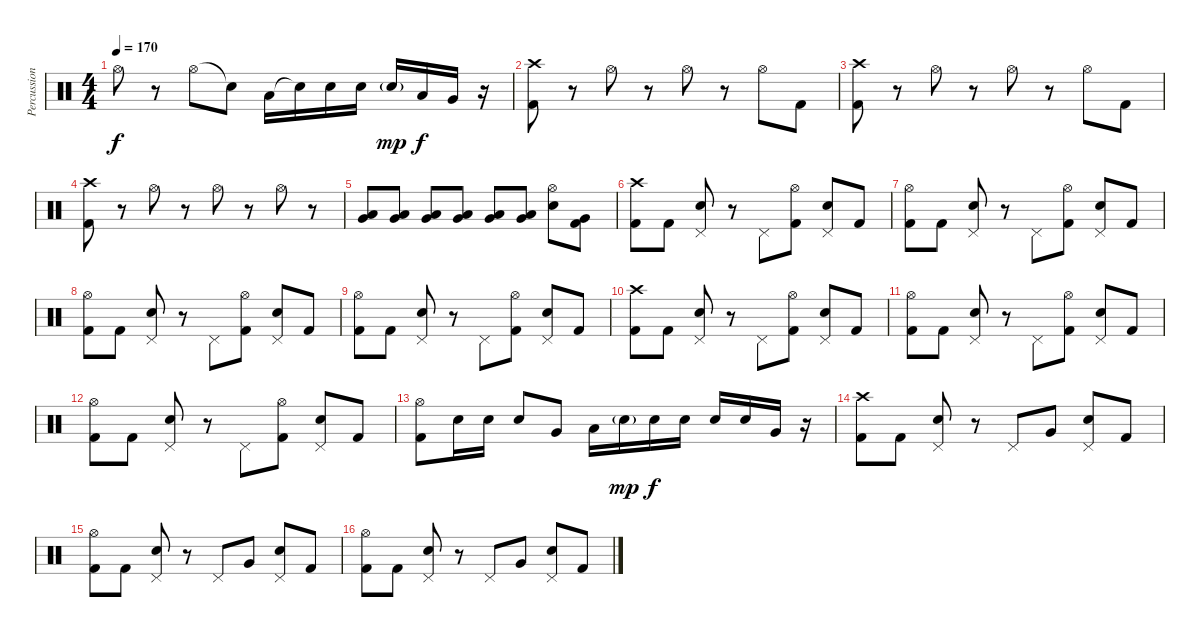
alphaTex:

\track ("Percussion" "Percussion") {instrument percussion}
\staff {score}
\articulation defaults
\ts (4 4)
\tempo 170
\clef neutral
\ks c "Hi-Hat (open)".8{dy f}
r.8 "Hi-Hat (open)".8 "Snare (hit)"{t}.8 "Low Tom (hit)".16 "Snare (hit)"{t}.16 "Electric Snare (hit)".16 "Electric Snare (hit)".16 "Electric Snare (hit)"{g}.16{dy mp} "Low Tom (hit)".16{dy f} "Very Low Tom (hit)".16 r.16 |
("Crash high (hit)" "Kick (hit) 2").8 r.8 "Hi-Hat (open)".8 r.8 "Hi-Hat (open)".8 r.8 "Hi-Hat (open)".8 "Kick (hit) 2".8 |
("Crash high (hit)" "Kick (hit) 2").8 r.8 "Hi-Hat (open)".8 r.8 "Hi-Hat (open)".8 r.8 "Hi-Hat (open)".8 "Kick (hit) 2".8 |
("Crash high (hit)" "Kick (hit) 2").8 r.8 "Hi-Hat (open)".8 r.8 "Hi-Hat (open)".8 r.8 "Hi-Hat (open)".8 r.8 |
("Low Floor Tom (hit)" "Very Low Tom (hit)").8 ("Low Floor Tom (hit)" "Very Low Tom (hit)").8 ("Low Floor Tom (hit)" "Very Low Tom (hit)").8 ("Low Floor Tom (hit)" "Very Low Tom (hit)").8 ("Low Floor Tom (hit)" "Very Low Tom (hit)").8 ("Low Floor Tom (hit)" "Very Low Tom (hit)").8 ("Electric Snare (hit)" "Hi-Hat (open)").8 ("Very Low Tom (hit)" "Kick (hit) 2").8 |
("Crash high (hit)" "Kick (hit) 2").8 "Kick (hit) 2".8 ("Pedal Hi-Hat (hit)" "Electric Snare (hit)").8 r.8 "Pedal Hi-Hat (hit)".8 ("Hi-Hat (open)" "Kick (hit) 2").8 ("Pedal Hi-Hat (hit)" "Electric Snare (hit)").8 "Kick (hit) 2".8 |
("Hi-Hat (open)" "Kick (hit) 2").8 "Kick (hit) 2".8 ("Pedal Hi-Hat (hit)" "Electric Snare (hit)").8 r.8 "Pedal Hi-Hat (hit)".8 ("Hi-Hat (open)" "Kick (hit) 2").8 ("Pedal Hi-Hat (hit)" "Electric Snare (hit)").8 "Kick (hit) 2".8 |
("Hi-Hat (open)" "Kick (hit) 2").8 "Kick (hit) 2".8 ("Pedal Hi-Hat (hit)" "Electric Snare (hit)").8 r.8 "Pedal Hi-Hat (hit)".8 ("Hi-Hat (open)" "Kick (hit) 2").8 ("Pedal Hi-Hat (hit)" "Electric Snare (hit)").8 "Kick (hit) 2".8 |
("Hi-Hat (open)" "Kick (hit) 2").8 "Kick (hit) 2".8 ("Pedal Hi-Hat (hit)" "Electric Snare (hit)").8 r.8 "Pedal Hi-Hat (hit)".8 ("Hi-Hat (open)" "Kick (hit) 2").8 ("Pedal Hi-Hat (hit)" "Electric Snare (hit)").8 "Kick (hit) 2".8 |
("Crash high (hit)" "Kick (hit) 2").8 "Kick (hit) 2".8 ("Pedal Hi-Hat (hit)" "Electric Snare (hit)").8 r.8 "Pedal Hi-Hat (hit)".8 ("Hi-Hat (open)" "Kick (hit) 2").8 ("Pedal Hi-Hat (hit)" "Electric Snare (hit)").8 "Kick (hit) 2".8 |
("Hi-Hat (open)" "Kick (hit) 2").8 "Kick (hit) 2".8 ("Pedal Hi-Hat (hit)" "Electric Snare (hit)").8 r.8 "Pedal Hi-Hat (hit)".8 ("Hi-Hat (open)" "Kick (hit) 2").8 ("Pedal Hi-Hat (hit)" "Electric Snare (hit)").8 "Kick (hit) 2".8 |
("Hi-Hat (open)" "Kick (hit) 2").8 "Kick (hit) 2".8 ("Pedal Hi-Hat (hit)" "Electric Snare (hit)").8 r.8 "Pedal Hi-Hat (hit)".8 ("Hi-Hat (open)" "Kick (hit) 2").8 ("Pedal Hi-Hat (hit)" "Electric Snare (hit)").8 "Kick (hit) 2".8 |
("Hi-Hat (open)" "Kick (hit) 2").8 "Electric Snare (hit)".16 "Electric Snare (hit)".16 "Electric Snare (hit)".8 "Very Low Tom (hit)".8 "Low Tom (hit)".16 "Electric Snare (hit)"{g}.16{dy mp} "Electric Snare (hit)".16{dy f} "Electric Snare (hit)".16 "Electric Snare (hit)".16 "Electric Snare (hit)".16 "Very Low Tom (hit)".16 r.16 |
("Crash high (hit)" "Kick (hit) 2").8 "Kick (hit) 2".8 ("Pedal Hi-Hat (hit)" "Electric Snare (hit)").8 r.8 "Pedal Hi-Hat (hit)".8 "Very Low Tom (hit)".8 ("Pedal Hi-Hat (hit)" "Electric Snare (hit)").8 "Kick (hit) 2".8 |
("Hi-Hat (open)" "Kick (hit) 2").8 "Kick (hit) 2".8 ("Pedal Hi-Hat (hit)" "Electric Snare (hit)").8 r.8 "Pedal Hi-Hat (hit)".8 "Very Low Tom (hit)".8 ("Pedal Hi-Hat (hit)" "Electric Snare (hit)").8 "Kick (hit) 2".8 |
("Hi-Hat (open)" "Kick (hit) 2").8 "Kick (hit) 2".8 ("Pedal Hi-Hat (hit)" "Electric Snare (hit)").8 r.8 "Pedal Hi-Hat (hit)".8 "Very Low Tom (hit)".8 ("Pedal Hi-Hat (hit)" "Electric Snare (hit)").8 "Kick (hit) 2".8
